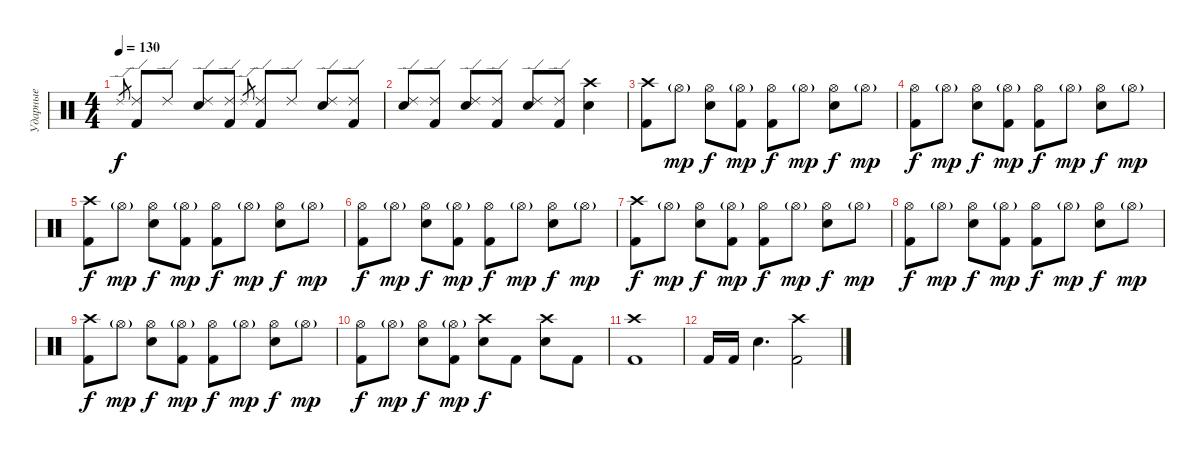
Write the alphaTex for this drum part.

\track ("Ударные" "Ударные") {instrument percussion}
\staff {score}
\articulation defaults
\ts (4 4)
\tempo 130
\clef neutral
\ks c "Ride (edge) 2".8{gr dy f}
("Kick (hit) 2" "Ride (edge) 2").8 "Ride (edge) 2".8 ("Electric Snare (hit)" "Ride (edge) 2").8 ("Kick (hit) 2" "Ride (edge) 2").8 "Ride (edge) 2".8{gr} ("Kick (hit) 2" "Ride (edge) 2").8 "Ride (edge) 2".8 ("Electric Snare (hit)" "Ride (edge) 2").8 ("Kick (hit) 2" "Ride (edge) 2").8 |
("Electric Snare (hit)" "Ride (edge) 2").8 ("Kick (hit) 2" "Ride (edge) 2").8 ("Electric Snare (hit)" "Ride (edge) 2").8 ("Kick (hit) 2" "Ride (edge) 2").8 ("Electric Snare (hit)" "Ride (edge) 2").8 ("Kick (hit) 2" "Ride (edge) 2").8 ("Electric Snare (hit)" "Crash high (hit)").4 |
("Kick (hit) 2" "Crash high (hit)").8 "Hi-Hat (open)"{g}.8{dy mp} ("Electric Snare (hit)" "Hi-Hat (open)").8{dy f} ("Kick (hit) 2" "Hi-Hat (open)"{g}).8{dy mp} ("Kick (hit) 2" "Hi-Hat (open)").8{dy f} "Hi-Hat (open)"{g}.8{dy mp} ("Electric Snare (hit)" "Hi-Hat (open)").8{dy f} "Hi-Hat (open)"{g}.8{dy mp} |
("Kick (hit) 2" "Hi-Hat (open)").8{dy f} "Hi-Hat (open)"{g}.8{dy mp} ("Electric Snare (hit)" "Hi-Hat (open)").8{dy f} ("Kick (hit) 2" "Hi-Hat (open)"{g}).8{dy mp} ("Kick (hit) 2" "Hi-Hat (open)").8{dy f} "Hi-Hat (open)"{g}.8{dy mp} ("Electric Snare (hit)" "Hi-Hat (open)").8{dy f} "Hi-Hat (open)"{g}.8{dy mp} |
("Kick (hit) 2" "Crash high (hit)").8{dy f} "Hi-Hat (open)"{g}.8{dy mp} ("Electric Snare (hit)" "Hi-Hat (open)").8{dy f} ("Kick (hit) 2" "Hi-Hat (open)"{g}).8{dy mp} ("Kick (hit) 2" "Hi-Hat (open)").8{dy f} "Hi-Hat (open)"{g}.8{dy mp} ("Electric Snare (hit)" "Hi-Hat (open)").8{dy f} "Hi-Hat (open)"{g}.8{dy mp} |
("Kick (hit) 2" "Hi-Hat (open)").8{dy f} "Hi-Hat (open)"{g}.8{dy mp} ("Electric Snare (hit)" "Hi-Hat (open)").8{dy f} ("Kick (hit) 2" "Hi-Hat (open)"{g}).8{dy mp} ("Kick (hit) 2" "Hi-Hat (open)").8{dy f} "Hi-Hat (open)"{g}.8{dy mp} ("Electric Snare (hit)" "Hi-Hat (open)").8{dy f} "Hi-Hat (open)"{g}.8{dy mp} |
("Kick (hit) 2" "Crash high (hit)").8{dy f} "Hi-Hat (open)"{g}.8{dy mp} ("Electric Snare (hit)" "Hi-Hat (open)").8{dy f} ("Kick (hit) 2" "Hi-Hat (open)"{g}).8{dy mp} ("Kick (hit) 2" "Hi-Hat (open)").8{dy f} "Hi-Hat (open)"{g}.8{dy mp} ("Electric Snare (hit)" "Hi-Hat (open)").8{dy f} "Hi-Hat (open)"{g}.8{dy mp} |
("Kick (hit) 2" "Hi-Hat (open)").8{dy f} "Hi-Hat (open)"{g}.8{dy mp} ("Electric Snare (hit)" "Hi-Hat (open)").8{dy f} ("Kick (hit) 2" "Hi-Hat (open)"{g}).8{dy mp} ("Kick (hit) 2" "Hi-Hat (open)").8{dy f} "Hi-Hat (open)"{g}.8{dy mp} ("Electric Snare (hit)" "Hi-Hat (open)").8{dy f} "Hi-Hat (open)"{g}.8{dy mp} |
("Kick (hit) 2" "Crash high (hit)").8{dy f} "Hi-Hat (open)"{g}.8{dy mp} ("Electric Snare (hit)" "Hi-Hat (open)").8{dy f} ("Kick (hit) 2" "Hi-Hat (open)"{g}).8{dy mp} ("Kick (hit) 2" "Hi-Hat (open)").8{dy f} "Hi-Hat (open)"{g}.8{dy mp} ("Electric Snare (hit)" "Hi-Hat (open)").8{dy f} "Hi-Hat (open)"{g}.8{dy mp} |
("Kick (hit) 2" "Hi-Hat (open)").8{dy f} "Hi-Hat (open)"{g}.8{dy mp} ("Electric Snare (hit)" "Hi-Hat (open)").8{dy f} ("Kick (hit) 2" "Hi-Hat (open)"{g}).8{dy mp} ("Electric Snare (hit)" "Crash high (hit)").8{dy f} "Kick (hit) 2".8 ("Electric Snare (hit)" "Crash high (hit)").8 "Kick (hit) 2".8 |
("Kick (hit) 2" "Crash high (hit)").1 |
"Kick (hit) 2".16 "Kick (hit) 2".16 "Electric Snare (hit)".4{d} ("Kick (hit) 2" "Crash high (hit)").2
